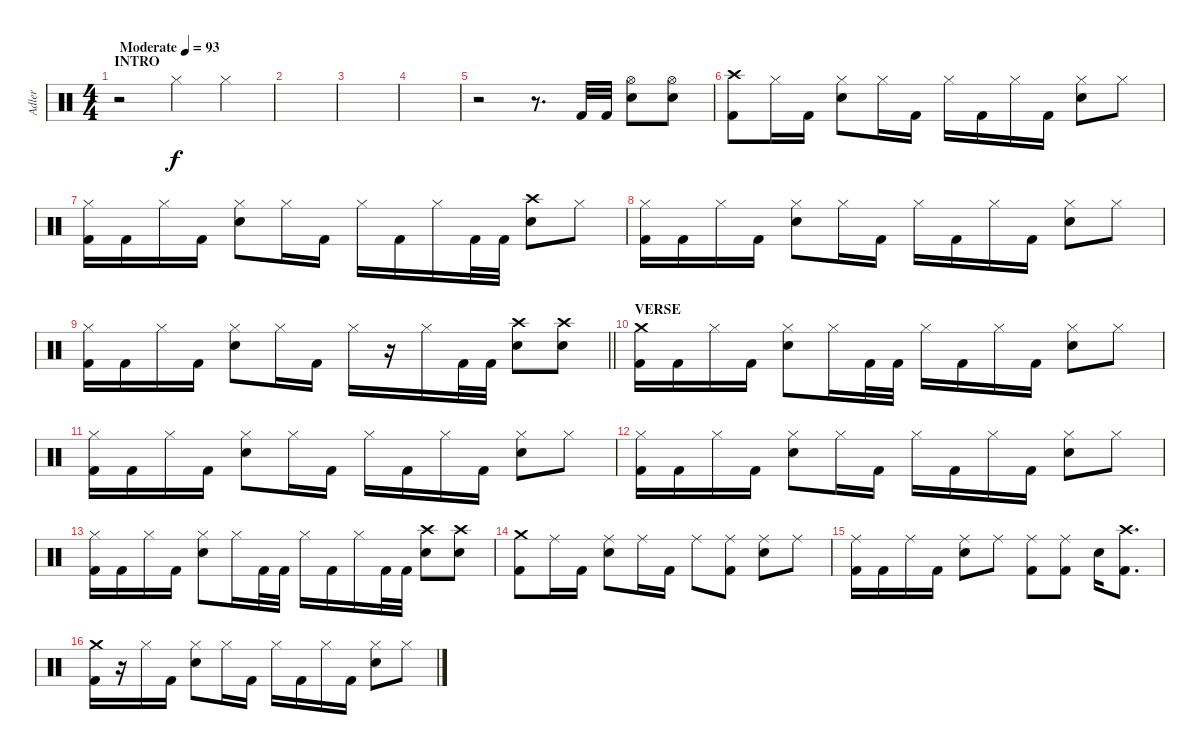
\track ("Adler" "Adler") {instrument percussion}
\staff {score}
\articulation defaults
\ts (4 4)
\section ("" "INTRO")
\tempo (93 "Moderate")
\clef neutral
\ks c
r.2{dy f} "Hi-Hat (closed)".4 "Hi-Hat (closed)".4 |
|
|
|
r.2 r.8{d} "Kick (hit) 2".32 "Kick (hit) 2".32 ("Hi-Hat (open)" "Snare (hit) 2").8 ("Hi-Hat (open)" "Snare (hit) 2").8 |
("Crash high (hit)" "Kick (hit) 2").8 "Hi-Hat (closed)".16 "Kick (hit) 2".16 ("Hi-Hat (closed)" "Snare (hit) 2").8 "Hi-Hat (closed)".16 "Kick (hit) 2".16 "Hi-Hat (closed)".16 "Kick (hit) 2".16 "Hi-Hat (closed)".16 "Kick (hit) 2".16 ("Hi-Hat (closed)" "Snare (hit) 2").8 "Hi-Hat (closed)".8 |
("Hi-Hat (closed)" "Kick (hit) 2").16 "Kick (hit) 2".16 "Hi-Hat (closed)".16 "Kick (hit) 2".16 ("Hi-Hat (closed)" "Snare (hit) 2").8 "Hi-Hat (closed)".16 "Kick (hit) 2".16 "Hi-Hat (closed)".16 "Kick (hit) 2".16 "Hi-Hat (closed)".16 "Kick (hit) 2".32 "Kick (hit) 2".32 ("Crash high (hit)" "Snare (hit) 2").8 "Hi-Hat (closed)".8 |
("Hi-Hat (closed)" "Kick (hit) 2").16 "Kick (hit) 2".16 "Hi-Hat (closed)".16 "Kick (hit) 2".16 ("Hi-Hat (closed)" "Snare (hit) 2").8 "Hi-Hat (closed)".16 "Kick (hit) 2".16 "Hi-Hat (closed)".16 "Kick (hit) 2".16 "Hi-Hat (closed)".16 "Kick (hit) 2".16 ("Hi-Hat (closed)" "Snare (hit) 2").8 "Hi-Hat (closed)".8 |
\barLineRight lightlight
("Hi-Hat (closed)" "Kick (hit) 2").16 "Kick (hit) 2".16 "Hi-Hat (closed)".16 "Kick (hit) 2".16 ("Hi-Hat (closed)" "Snare (hit) 2").8 "Hi-Hat (closed)".16 "Kick (hit) 2".16 "Hi-Hat (closed)".16 r.16 "Hi-Hat (closed)".16 "Kick (hit) 2".32 "Kick (hit) 2".32 ("Crash high (hit)" "Snare (hit) 2").8 ("Crash high (hit)" "Snare (hit) 2").8 |
\section ("" "VERSE")
("Crash medium (hit)" "Kick (hit) 2").16 "Kick (hit) 2".16 "Hi-Hat (closed)".16 "Kick (hit) 2".16 ("Hi-Hat (closed)" "Snare (hit) 2").8 "Hi-Hat (closed)".16 "Kick (hit) 2".32 "Kick (hit) 2".32 "Hi-Hat (closed)".16 "Kick (hit) 2".16 "Hi-Hat (closed)".16 "Kick (hit) 2".16 ("Hi-Hat (closed)" "Snare (hit) 2").8 "Hi-Hat (closed)".8 |
("Hi-Hat (closed)" "Kick (hit) 2").16 "Kick (hit) 2".16 "Hi-Hat (closed)".16 "Kick (hit) 2".16 ("Hi-Hat (closed)" "Snare (hit) 2").8 "Hi-Hat (closed)".16 "Kick (hit) 2".16 "Hi-Hat (closed)".16 "Kick (hit) 2".16 "Hi-Hat (closed)".16 "Kick (hit) 2".16 ("Hi-Hat (closed)" "Snare (hit) 2").8 "Hi-Hat (closed)".8 |
("Hi-Hat (closed)" "Kick (hit) 2").16 "Kick (hit) 2".16 "Hi-Hat (closed)".16 "Kick (hit) 2".16 ("Hi-Hat (closed)" "Snare (hit) 2").8 "Hi-Hat (closed)".16 "Kick (hit) 2".16 "Hi-Hat (closed)".16 "Kick (hit) 2".16 "Hi-Hat (closed)".16 "Kick (hit) 2".16 ("Hi-Hat (closed)" "Snare (hit) 2").8 "Hi-Hat (closed)".8 |
("Hi-Hat (closed)" "Kick (hit) 2").16 "Kick (hit) 2".16 "Hi-Hat (closed)".16 "Kick (hit) 2".16 ("Hi-Hat (closed)" "Snare (hit) 2").8 "Hi-Hat (closed)".16 "Kick (hit) 2".32 "Kick (hit) 2".32 "Hi-Hat (closed)".16 "Kick (hit) 2".16 "Hi-Hat (closed)".16 "Kick (hit) 2".32 "Kick (hit) 2".32 ("Crash high (hit)" "Snare (hit) 2").8 ("Crash high (hit)" "Snare (hit) 2").8 |
("Crash medium (hit)" "Kick (hit) 2").8 "Ride (middle)".16 "Kick (hit) 2".16 ("Snare (hit) 2" "Ride (middle)").8 "Ride (middle)".16 "Kick (hit) 2".16 "Ride (middle)".8 ("Kick (hit) 2" "Ride (middle)").8 ("Snare (hit) 2" "Ride (middle)").8 "Ride (middle)".8 |
("Kick (hit) 2" "Ride (middle)").16 "Kick (hit) 2".16 "Ride (middle)".16 "Kick (hit) 2".16 ("Snare (hit) 2" "Ride (middle)").8 "Ride (middle)".8 ("Kick (hit) 2" "Ride (middle)").8 ("Kick (hit) 2" "Ride (middle)").8 "Snare (hit) 2".16 ("Crash high (hit)" "Kick (hit) 2").8{d} |
("Crash medium (hit)" "Kick (hit) 2").16 r.16 "Hi-Hat (closed)".16 "Kick (hit) 2".16 ("Hi-Hat (closed)" "Snare (hit) 2").8 "Hi-Hat (closed)".16 "Kick (hit) 2".16 "Hi-Hat (closed)".16 "Kick (hit) 2".16 "Hi-Hat (closed)".16 "Kick (hit) 2".16 ("Hi-Hat (closed)" "Snare (hit) 2").8 "Hi-Hat (closed)".8
